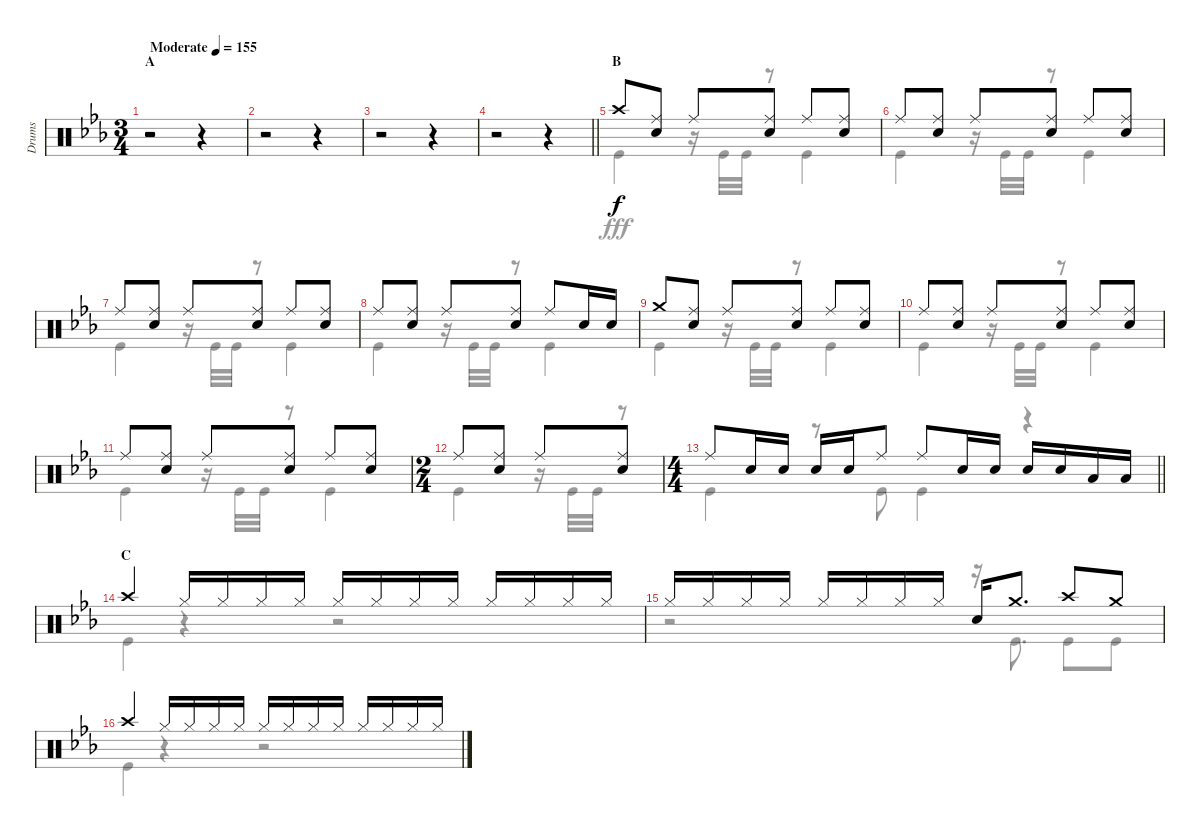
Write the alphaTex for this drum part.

\track ("Drums" "Drums") {instrument percussion}
\staff {score}
\articulation defaults
\voice
\ts (3 4)
\section ("" "A")
\tempo (155 "Moderate")
\clef neutral
\ks eb
r.2{dy f} r.4 |
r.2 r.4 |
r.2 r.4 |
\barLineRight lightlight
r.2 r.4 |
\section ("" "B")
"Crash high (hit)".8 ("Ride (middle)" "Snare (hit) 2").8 "Ride (middle)".8 ("Ride (middle)" "Snare (hit) 2").8 "Ride (middle)".8 ("Ride (middle)" "Snare (hit) 2").8 |
"Ride (middle)".8 ("Ride (middle)" "Snare (hit) 2").8 "Ride (middle)".8 ("Ride (middle)" "Snare (hit) 2").8 "Ride (middle)".8 ("Ride (middle)" "Snare (hit) 2").8 |
"Ride (middle)".8 ("Ride (middle)" "Snare (hit) 2").8 "Ride (middle)".8 ("Ride (middle)" "Snare (hit) 2").8 "Ride (middle)".8 ("Ride (middle)" "Snare (hit) 2").8 |
"Ride (middle)".8 ("Ride (middle)" "Snare (hit) 2").8 "Ride (middle)".8 ("Ride (middle)" "Snare (hit) 2").8 "Ride (middle)".8 "Snare (hit) 2".16 "Snare (hit) 2".16 |
"Crash medium (hit)".8 ("Ride (middle)" "Snare (hit) 2").8 "Ride (middle)".8 ("Ride (middle)" "Snare (hit) 2").8 "Ride (middle)".8 ("Ride (middle)" "Snare (hit) 2").8 |
"Ride (middle)".8 ("Ride (middle)" "Snare (hit) 2").8 "Ride (middle)".8 ("Ride (middle)" "Snare (hit) 2").8 "Ride (middle)".8 ("Ride (middle)" "Snare (hit) 2").8 |
"Ride (middle)".8 ("Ride (middle)" "Snare (hit) 2").8 "Ride (middle)".8 ("Ride (middle)" "Snare (hit) 2").8 "Ride (middle)".8 ("Ride (middle)" "Snare (hit) 2").8 |
\ts (2 4)
"Ride (middle)".8 ("Ride (middle)" "Snare (hit) 2").8 "Ride (middle)".8 ("Ride (middle)" "Snare (hit) 2").8 |
\ts (4 4)
\barLineRight lightlight "Ride (middle)".8 "Snare (hit) 2".16 "Snare (hit) 2".16 "Snare (hit) 2".16 "Snare (hit) 2".16 "Ride (middle)".8 "Ride (middle)".8 "Snare (hit) 2".16 "Snare (hit) 2".16 "Snare (hit) 2".16 "Snare (hit) 2".16 "Low Tom (hit)".16 "Low Tom (hit)".16
|
\section ("" "C")
"Crash high (hit)".4 "Hi-Hat (closed)".16 "Hi-Hat (closed)".16 "Hi-Hat (closed)".16 "Hi-Hat (closed)".16 "Hi-Hat (closed)".16 "Hi-Hat (closed)".16 "Hi-Hat (closed)".16 "Hi-Hat (closed)".16 "Hi-Hat (closed)".16 "Hi-Hat (closed)".16 "Hi-Hat (closed)".16 "Hi-Hat (closed)".16 |
"Hi-Hat (closed)".16 "Hi-Hat (closed)".16 "Hi-Hat (closed)".16 "Hi-Hat (closed)".16 "Hi-Hat (closed)".16 "Hi-Hat (closed)".16 "Hi-Hat (closed)".16 "Hi-Hat (closed)".16 "Snare (hit) 2".16 "Crash medium (hit)".8{d} "Crash high (hit)".8 "Crash medium (hit)".8 |
"Crash high (hit)".4 "Hi-Hat (closed)".16 "Hi-Hat (closed)".16 "Hi-Hat (closed)".16 "Hi-Hat (closed)".16 "Hi-Hat (closed)".16 "Hi-Hat (closed)".16 "Hi-Hat (closed)".16 "Hi-Hat (closed)".16 "Hi-Hat (closed)".16 "Hi-Hat (closed)".16 "Hi-Hat (closed)".16 "Hi-Hat (closed)".16
\voice
\clef neutral
\ottava regular
\simile none
\ks eb
r.2{dy fff} r.4 |
r.2 r.4 |
r.2 r.4 |
\barLineRight lightlight
r.2 r.4 |
"Kick (hit)".4 r.16 "Kick (hit)".32 "Kick (hit)".32 r.8 "Kick (hit)".4 |
"Kick (hit)".4 r.16 "Kick (hit)".32 "Kick (hit)".32 r.8 "Kick (hit)".4 |
"Kick (hit)".4 r.16 "Kick (hit)".32 "Kick (hit)".32 r.8 "Kick (hit)".4 |
"Kick (hit)".4 r.16 "Kick (hit)".32 "Kick (hit)".32 r.8 "Kick (hit)".4 |
"Kick (hit)".4 r.16 "Kick (hit)".32 "Kick (hit)".32 r.8 "Kick (hit)".4 |
"Kick (hit)".4 r.16 "Kick (hit)".32 "Kick (hit)".32 r.8 "Kick (hit)".4 |
"Kick (hit)".4 r.16 "Kick (hit)".32 "Kick (hit)".32 r.8 "Kick (hit)".4 |
"Kick (hit)".4 r.16 "Kick (hit)".32 "Kick (hit)".32 r.8 |
\barLineRight lightlight "Kick (hit)".4
r.8 "Kick (hit)".8 "Kick (hit)".4 r.4 |
"Kick (hit)".4 r.4 r.2 |
r.2 r.16 "Kick (hit)".8{d} "Kick (hit)".8 "Kick (hit)".8 |
"Kick (hit)".4 r.4 r.2
